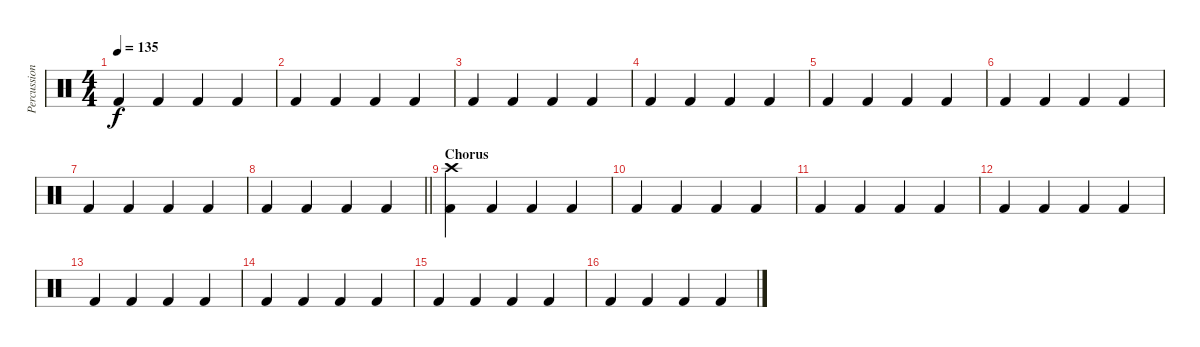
\track ("Percussion" "Percussion") {instrument percussion}
\staff {score}
\articulation defaults
\ts (4 4)
\tempo 135
\clef neutral
\ks c "Kick (hit) 2".4{dy f} "Kick (hit) 2".4 "Kick (hit) 2".4 "Kick (hit) 2".4
|
"Kick (hit) 2".4 "Kick (hit) 2".4 "Kick (hit) 2".4 "Kick (hit) 2".4 |
"Kick (hit) 2".4 "Kick (hit) 2".4 "Kick (hit) 2".4 "Kick (hit) 2".4 |
"Kick (hit) 2".4 "Kick (hit) 2".4 "Kick (hit) 2".4 "Kick (hit) 2".4 |
"Kick (hit) 2".4 "Kick (hit) 2".4 "Kick (hit) 2".4 "Kick (hit) 2".4 |
"Kick (hit) 2".4 "Kick (hit) 2".4 "Kick (hit) 2".4 "Kick (hit) 2".4 |
"Kick (hit) 2".4 "Kick (hit) 2".4 "Kick (hit) 2".4 "Kick (hit) 2".4 |
\barLineRight lightlight "Kick (hit) 2".4 "Kick (hit) 2".4 "Kick (hit) 2".4 "Kick (hit) 2".4
|
\section ("" "Chorus")
("Kick (hit) 2" "Crash high (hit)").4 "Kick (hit) 2".4 "Kick (hit) 2".4 "Kick (hit) 2".4 |
"Kick (hit) 2".4 "Kick (hit) 2".4 "Kick (hit) 2".4 "Kick (hit) 2".4 |
"Kick (hit) 2".4 "Kick (hit) 2".4 "Kick (hit) 2".4 "Kick (hit) 2".4 |
"Kick (hit) 2".4 "Kick (hit) 2".4 "Kick (hit) 2".4 "Kick (hit) 2".4 |
"Kick (hit) 2".4 "Kick (hit) 2".4 "Kick (hit) 2".4 "Kick (hit) 2".4 |
"Kick (hit) 2".4 "Kick (hit) 2".4 "Kick (hit) 2".4 "Kick (hit) 2".4 |
"Kick (hit) 2".4 "Kick (hit) 2".4 "Kick (hit) 2".4 "Kick (hit) 2".4 |
"Kick (hit) 2".4 "Kick (hit) 2".4 "Kick (hit) 2".4 "Kick (hit) 2".4
